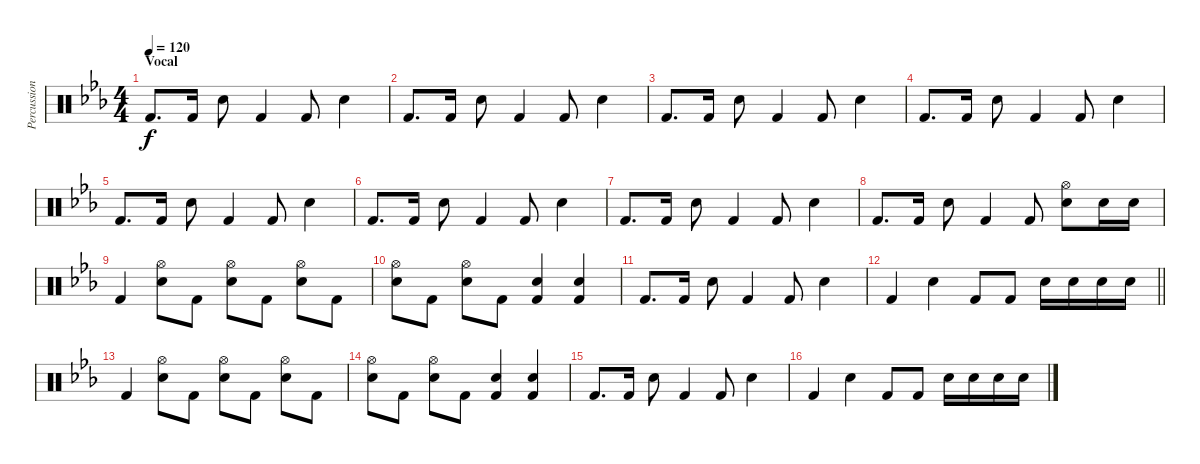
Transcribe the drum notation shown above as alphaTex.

\track ("Percussion" "Percussion") {instrument percussion}
\staff {score}
\articulation defaults
\ts (4 4)
\section ("" "Vocal")
\tempo 120
\clef neutral
\ks cminor "Kick (hit) 2".8{d dy f} "Kick (hit) 2".16 "Snare (hit) 2".8 "Kick (hit) 2".4 "Kick (hit) 2".8 "Snare (hit) 2".4
|
"Kick (hit) 2".8{d} "Kick (hit) 2".16 "Snare (hit) 2".8 "Kick (hit) 2".4 "Kick (hit) 2".8 "Snare (hit) 2".4 |
"Kick (hit) 2".8{d} "Kick (hit) 2".16 "Snare (hit) 2".8 "Kick (hit) 2".4 "Kick (hit) 2".8 "Snare (hit) 2".4 |
"Kick (hit) 2".8{d} "Kick (hit) 2".16 "Snare (hit) 2".8 "Kick (hit) 2".4 "Kick (hit) 2".8 "Snare (hit) 2".4 |
"Kick (hit) 2".8{d} "Kick (hit) 2".16 "Snare (hit) 2".8 "Kick (hit) 2".4 "Kick (hit) 2".8 "Snare (hit) 2".4 |
"Kick (hit) 2".8{d} "Kick (hit) 2".16 "Snare (hit) 2".8 "Kick (hit) 2".4 "Kick (hit) 2".8 "Snare (hit) 2".4 |
"Kick (hit) 2".8{d} "Kick (hit) 2".16 "Snare (hit) 2".8 "Kick (hit) 2".4 "Kick (hit) 2".8 "Snare (hit) 2".4 |
"Kick (hit) 2".8{d} "Kick (hit) 2".16 "Snare (hit) 2".8 "Kick (hit) 2".4 "Kick (hit) 2".8 ("Snare (hit) 2" "Hi-Hat (open)").8 "Snare (hit) 2".16 "Snare (hit) 2".16 |
"Kick (hit) 2".4 ("Snare (hit) 2" "Hi-Hat (open)").8 "Kick (hit) 2".8 ("Snare (hit) 2" "Hi-Hat (open)").8 "Kick (hit) 2".8 ("Snare (hit) 2" "Hi-Hat (open)").8 "Kick (hit) 2".8 |
("Snare (hit) 2" "Hi-Hat (open)").8 "Kick (hit) 2".8 ("Snare (hit) 2" "Hi-Hat (open)").8 "Kick (hit) 2".8 ("Snare (hit) 2" "Kick (hit) 2").4 ("Snare (hit) 2" "Kick (hit) 2").4 |
"Kick (hit) 2".8{d} "Kick (hit) 2".16 "Snare (hit) 2".8 "Kick (hit) 2".4 "Kick (hit) 2".8 "Snare (hit) 2".4 |
\barLineRight lightlight "Kick (hit) 2".4 "Snare (hit) 2".4 "Kick (hit) 2".8 "Kick (hit) 2".8 "Snare (hit) 2".16 "Snare (hit) 2".16 "Snare (hit) 2".16 "Snare (hit) 2".16
|
"Kick (hit) 2".4 ("Snare (hit) 2" "Hi-Hat (open)").8 "Kick (hit) 2".8 ("Snare (hit) 2" "Hi-Hat (open)").8 "Kick (hit) 2".8 ("Snare (hit) 2" "Hi-Hat (open)").8 "Kick (hit) 2".8 |
("Snare (hit) 2" "Hi-Hat (open)").8 "Kick (hit) 2".8 ("Snare (hit) 2" "Hi-Hat (open)").8 "Kick (hit) 2".8 ("Snare (hit) 2" "Kick (hit) 2").4 ("Snare (hit) 2" "Kick (hit) 2").4 |
"Kick (hit) 2".8{d} "Kick (hit) 2".16 "Snare (hit) 2".8 "Kick (hit) 2".4 "Kick (hit) 2".8 "Snare (hit) 2".4 |
"Kick (hit) 2".4 "Snare (hit) 2".4 "Kick (hit) 2".8 "Kick (hit) 2".8 "Snare (hit) 2".16 "Snare (hit) 2".16 "Snare (hit) 2".16 "Snare (hit) 2".16
